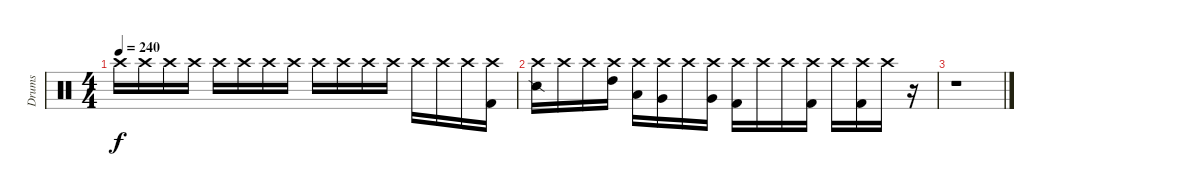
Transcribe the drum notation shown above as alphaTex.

\track ("Drums" "Drums") {instrument percussion}
\staff {score}
\articulation defaults
\ts (4 4)
\tempo 240
\clef neutral
\ks c "Crash high (hit)".16{dy f} "Crash high (hit)".16 "Crash high (hit)".16 "Crash high (hit)".16 "Crash high (hit)".16 "Crash high (hit)".16 "Crash high (hit)".16 "Crash high (hit)".16 "Crash high (hit)".16 "Crash high (hit)".16 "Crash high (hit)".16 "Crash high (hit)".16 "Crash high (hit)".16 "Crash high (hit)".16 "Crash high (hit)".16
("Crash high (hit)" "Kick (hit) 2").16 |
("Crash high (hit)" "Snare (side stick) 2").16 "Crash high (hit)".16 "Crash high (hit)".16 ("High Tom (hit)" "Crash high (hit)").16 ("Crash high (hit)" "Low Tom (hit)").16 ("Crash high (hit)" "Very Low Tom (hit)").16 "Crash high (hit)".16 ("Very Low Tom (hit)" "Crash high (hit)").16 ("Crash high (hit)" "Kick (hit) 2").16 "Crash high (hit)".16 "Crash high (hit)".16 ("Kick (hit) 2" "Crash high (hit)").16 "Crash high (hit)".16 ("Crash high (hit)" "Kick (hit) 2").16 "Crash high (hit)".16 r.16 |
r.1
